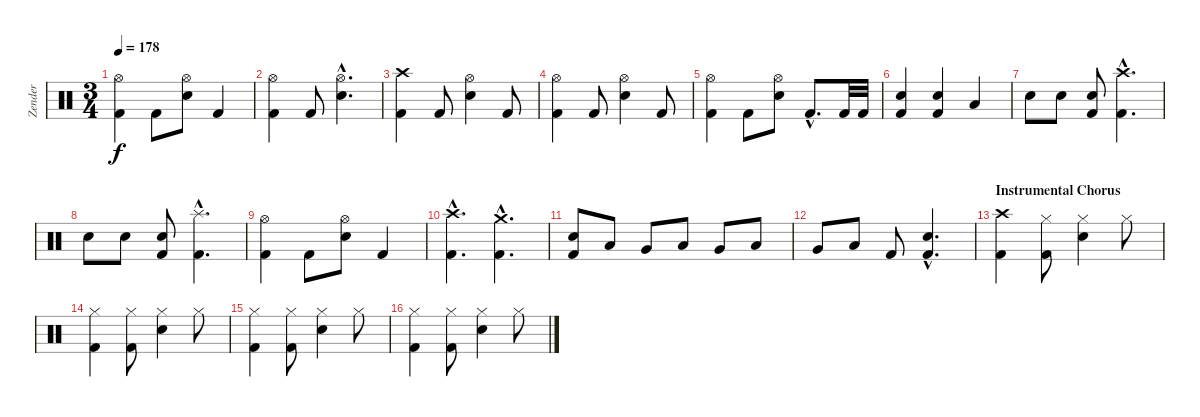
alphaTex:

\track ("Zender" "Zender") {instrument percussion}
\staff {score}
\articulation defaults
\ts (3 4)
\tempo 178
\clef neutral
\ks c
("Hi-Hat (open)" "Kick (hit) 2").4{dy f} "Kick (hit) 2".8 ("Electric Snare (hit)" "Hi-Hat (open)").8 "Kick (hit) 2".4 |
("Hi-Hat (open)" "Kick (hit) 2").4 "Kick (hit) 2".8 ("Electric Snare (hit)"{hac} "Hi-Hat (open)"{hac}).4{d} |
("Crash high (hit)" "Kick (hit) 2").4 "Kick (hit) 2".8 ("Electric Snare (hit)" "Hi-Hat (open)").4 "Kick (hit) 2".8 |
("Hi-Hat (open)" "Kick (hit) 2").4 "Kick (hit) 2".8 ("Electric Snare (hit)" "Hi-Hat (open)").4 "Kick (hit) 2".8 |
("Hi-Hat (open)" "Kick (hit) 2").4 "Kick (hit) 2".8 ("Electric Snare (hit)" "Hi-Hat (open)").8 "Kick (hit) 2"{hac}.8{d} "Kick (hit) 2".32 "Kick (hit) 2".32 |
("Electric Snare (hit)" "Kick (hit) 2").4 ("Electric Snare (hit)" "Kick (hit) 2").4 "Low Tom (hit)".4 |
"Electric Snare (hit)".8 "Electric Snare (hit)".8 ("Electric Snare (hit)" "Kick (hit) 2").8 ("Crash high (hit)"{hac} "Kick (hit) 2"{hac}).4{d} |
"Electric Snare (hit)".8 "Electric Snare (hit)".8 ("Electric Snare (hit)" "Kick (hit) 2").8 ("Splash (hit)"{hac} "Kick (hit) 2"{hac}).4{d} |
("Hi-Hat (open)" "Kick (hit) 2").4 "Kick (hit) 2".8 ("Electric Snare (hit)" "Hi-Hat (open)").8 "Kick (hit) 2".4 |
("Crash high (hit)"{hac} "Kick (hit) 2"{hac}).4{d} ("Crash medium (hit)"{hac} "Kick (hit) 2"{hac}).4{d} |
("Electric Snare (hit)" "Kick (hit) 2").8 "Low Tom (hit)".8 "Very Low Tom (hit)".8 "Low Tom (hit)".8 "Very Low Tom (hit)".8 "Low Floor Tom (hit)".8 |
"Very Low Tom (hit)".8 "Low Floor Tom (hit)".8 "Kick (hit) 2".8 ("Electric Snare (hit)"{hac} "Kick (hit) 2"{hac}).4{d} |
\section ("" "Instrumental Chorus")
("Crash high (hit)" "Kick (hit) 2").4 ("Hi-Hat (closed)" "Kick (hit) 2").8 ("Electric Snare (hit)" "Hi-Hat (closed)").4 "Hi-Hat (closed)".8 |
("Hi-Hat (closed)" "Kick (hit) 2").4 ("Hi-Hat (closed)" "Kick (hit) 2").8 ("Electric Snare (hit)" "Hi-Hat (closed)").4 "Hi-Hat (closed)".8 |
("Hi-Hat (closed)" "Kick (hit) 2").4 ("Hi-Hat (closed)" "Kick (hit) 2").8 ("Electric Snare (hit)" "Hi-Hat (closed)").4 "Hi-Hat (closed)".8 |
("Hi-Hat (closed)" "Kick (hit) 2").4 ("Hi-Hat (closed)" "Kick (hit) 2").8 ("Electric Snare (hit)" "Hi-Hat (closed)").4 "Hi-Hat (closed)".8
